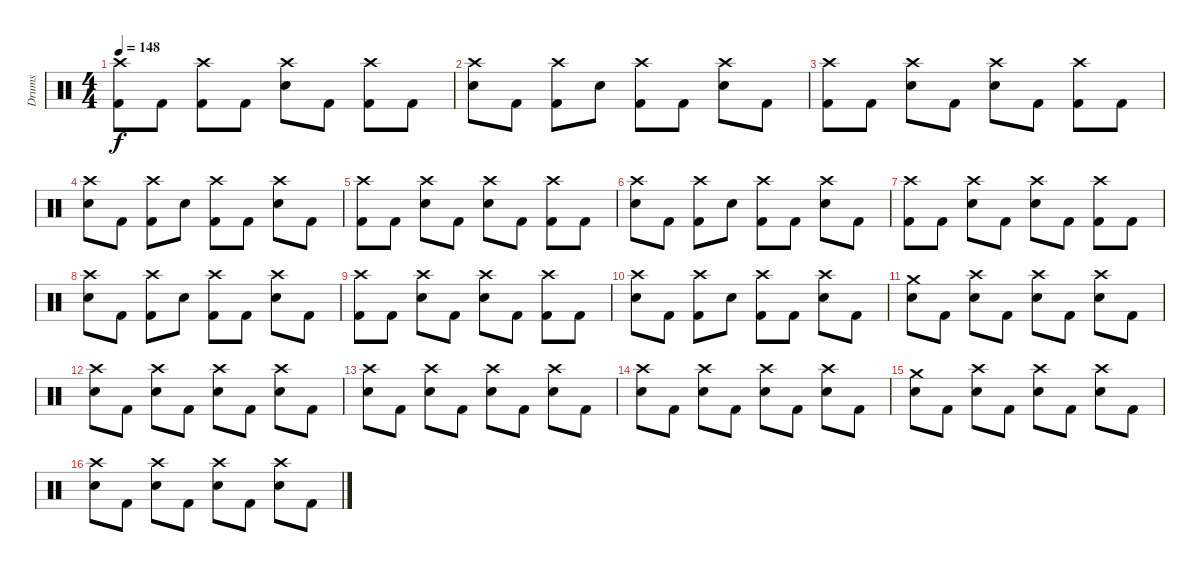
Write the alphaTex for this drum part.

\track ("Drums" "Drums") {instrument percussion}
\staff {score}
\articulation defaults
\ts (4 4)
\tempo 148
\clef neutral
\ks c
("Crash high (hit)" "Kick (hit) 2").8{dy f} "Kick (hit) 2".8 ("Crash high (hit)" "Kick (hit) 2").8 "Kick (hit) 2".8 ("Crash high (hit)" "Snare (hit) 2").8 "Kick (hit) 2".8 ("Crash high (hit)" "Kick (hit) 2").8 "Kick (hit) 2".8 |
("Crash high (hit)" "Snare (hit) 2").8 "Kick (hit) 2".8 ("Crash high (hit)" "Kick (hit) 2").8 "Snare (hit) 2".8 ("Crash high (hit)" "Kick (hit) 2").8 "Kick (hit) 2".8 ("Crash high (hit)" "Snare (hit) 2").8 "Kick (hit) 2".8 |
("Crash high (hit)" "Kick (hit) 2").8 "Kick (hit) 2".8 ("Crash high (hit)" "Snare (hit) 2").8 "Kick (hit) 2".8 ("Crash high (hit)" "Snare (hit) 2").8 "Kick (hit) 2".8 ("Crash high (hit)" "Kick (hit) 2").8 "Kick (hit) 2".8 |
("Crash high (hit)" "Snare (hit) 2").8 "Kick (hit) 2".8 ("Crash high (hit)" "Kick (hit) 2").8 "Snare (hit) 2".8 ("Crash high (hit)" "Kick (hit) 2").8 "Kick (hit) 2".8 ("Crash high (hit)" "Snare (hit) 2").8 "Kick (hit) 2".8 |
("Crash high (hit)" "Kick (hit) 2").8 "Kick (hit) 2".8 ("Crash high (hit)" "Snare (hit) 2").8 "Kick (hit) 2".8 ("Crash high (hit)" "Snare (hit) 2").8 "Kick (hit) 2".8 ("Crash high (hit)" "Kick (hit) 2").8 "Kick (hit) 2".8 |
("Crash high (hit)" "Snare (hit) 2").8 "Kick (hit) 2".8 ("Crash high (hit)" "Kick (hit) 2").8 "Snare (hit) 2".8 ("Crash high (hit)" "Kick (hit) 2").8 "Kick (hit) 2".8 ("Crash high (hit)" "Snare (hit) 2").8 "Kick (hit) 2".8 |
("Crash high (hit)" "Kick (hit) 2").8 "Kick (hit) 2".8 ("Crash high (hit)" "Snare (hit) 2").8 "Kick (hit) 2".8 ("Crash high (hit)" "Snare (hit) 2").8 "Kick (hit) 2".8 ("Crash high (hit)" "Kick (hit) 2").8 "Kick (hit) 2".8 |
("Crash high (hit)" "Snare (hit) 2").8 "Kick (hit) 2".8 ("Crash high (hit)" "Kick (hit) 2").8 "Snare (hit) 2".8 ("Crash high (hit)" "Kick (hit) 2").8 "Kick (hit) 2".8 ("Crash high (hit)" "Snare (hit) 2").8 "Kick (hit) 2".8 |
("Crash high (hit)" "Kick (hit) 2").8 "Kick (hit) 2".8 ("Crash high (hit)" "Snare (hit) 2").8 "Kick (hit) 2".8 ("Crash high (hit)" "Snare (hit) 2").8 "Kick (hit) 2".8 ("Crash high (hit)" "Kick (hit) 2").8 "Kick (hit) 2".8 |
("Crash high (hit)" "Snare (hit) 2").8 "Kick (hit) 2".8 ("Crash high (hit)" "Kick (hit) 2").8 "Snare (hit) 2".8 ("Crash high (hit)" "Kick (hit) 2").8 "Kick (hit) 2".8 ("Crash high (hit)" "Snare (hit) 2").8 "Kick (hit) 2".8 |
("Crash medium (hit)" "Snare (hit) 2").8 "Kick (hit) 2".8 ("Crash high (hit)" "Snare (hit) 2").8 "Kick (hit) 2".8 ("Crash high (hit)" "Snare (hit) 2").8 "Kick (hit) 2".8 ("Crash high (hit)" "Snare (hit) 2").8 "Kick (hit) 2".8 |
("Crash high (hit)" "Snare (hit) 2").8 "Kick (hit) 2".8 ("Crash high (hit)" "Snare (hit) 2").8 "Kick (hit) 2".8 ("Crash high (hit)" "Snare (hit) 2").8 "Kick (hit) 2".8 ("Crash high (hit)" "Snare (hit) 2").8 "Kick (hit) 2".8 |
("Crash high (hit)" "Snare (hit) 2").8 "Kick (hit) 2".8 ("Crash high (hit)" "Snare (hit) 2").8 "Kick (hit) 2".8 ("Crash high (hit)" "Snare (hit) 2").8 "Kick (hit) 2".8 ("Crash high (hit)" "Snare (hit) 2").8 "Kick (hit) 2".8 |
("Crash high (hit)" "Snare (hit) 2").8 "Kick (hit) 2".8 ("Crash high (hit)" "Snare (hit) 2").8 "Kick (hit) 2".8 ("Crash high (hit)" "Snare (hit) 2").8 "Kick (hit) 2".8 ("Crash high (hit)" "Snare (hit) 2").8 "Kick (hit) 2".8 |
("Crash medium (hit)" "Snare (hit) 2").8 "Kick (hit) 2".8 ("Crash high (hit)" "Snare (hit) 2").8 "Kick (hit) 2".8 ("Crash high (hit)" "Snare (hit) 2").8 "Kick (hit) 2".8 ("Crash high (hit)" "Snare (hit) 2").8 "Kick (hit) 2".8 |
("Crash high (hit)" "Snare (hit) 2").8 "Kick (hit) 2".8 ("Crash high (hit)" "Snare (hit) 2").8 "Kick (hit) 2".8 ("Crash high (hit)" "Snare (hit) 2").8 "Kick (hit) 2".8 ("Crash high (hit)" "Snare (hit) 2").8 "Kick (hit) 2".8
